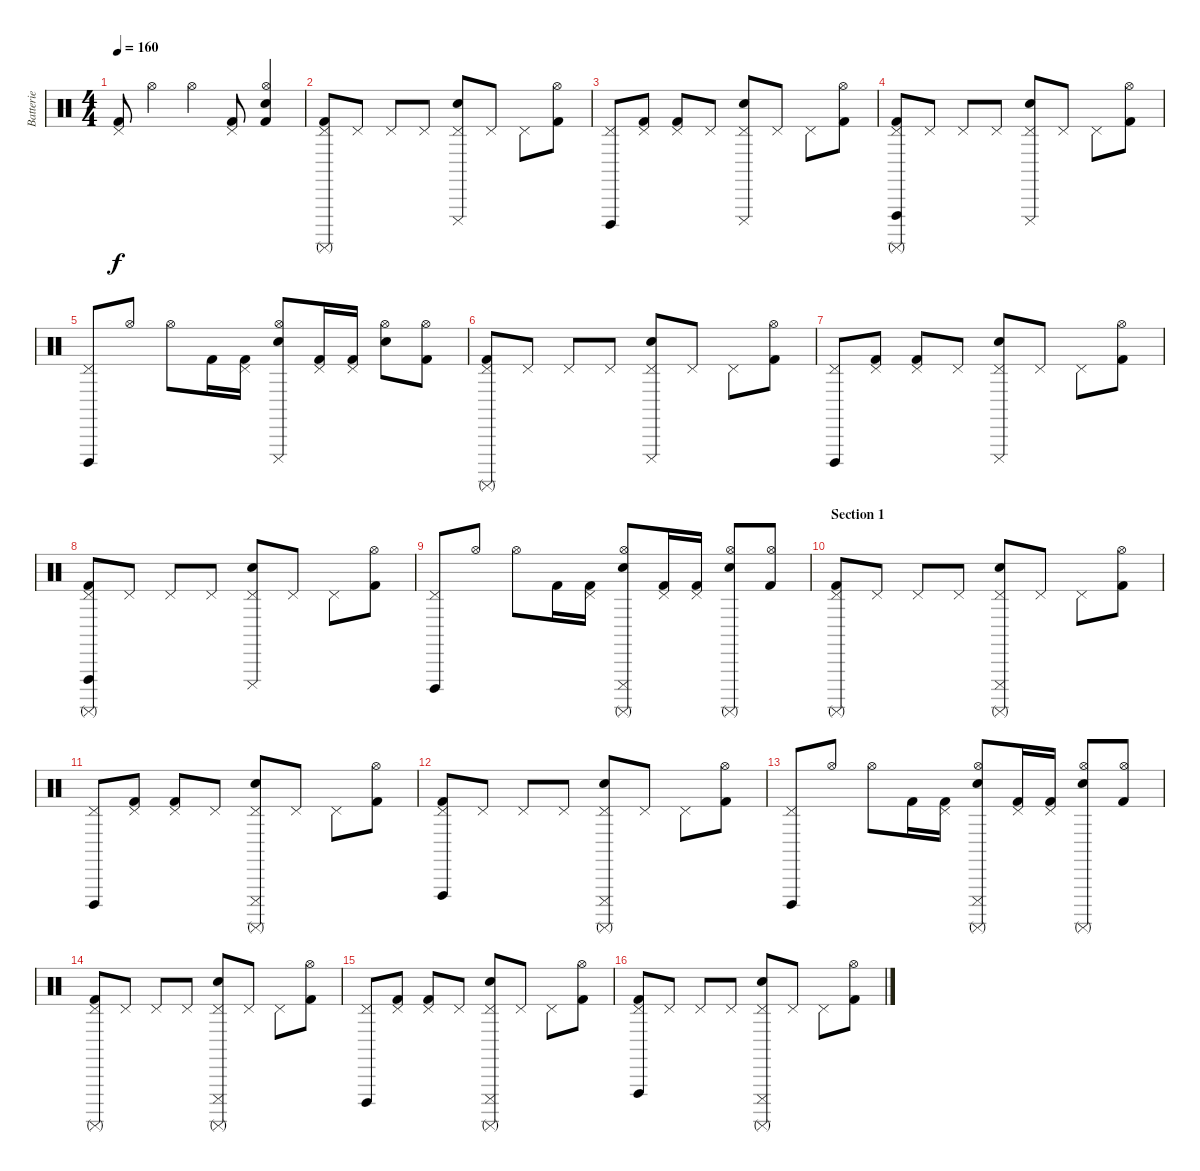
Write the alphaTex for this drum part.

\track ("Batterie" "Batterie") {instrument percussion}
\staff {score}
\articulation defaults
\ts (4 4)
\tempo 160
\clef neutral
\ks c
("Kick (hit) 2" "Pedal Hi-Hat (hit)").8{dy f} "Hi-Hat (open)".4 "Hi-Hat (open)".4 ("Pedal Hi-Hat (hit)" "Kick (hit) 2").8 ("Kick (hit) 2" "Hi-Hat (open)" "Electric Snare (hit)").4 |
("Surdo (mute)" "Pedal Hi-Hat (hit)" "Kick (hit) 2").8 "Pedal Hi-Hat (hit)".8 "Pedal Hi-Hat (hit)".8 "Pedal Hi-Hat (hit)".8 ("Cuica (mute)" "Pedal Hi-Hat (hit)" "Electric Snare (hit)").8 "Pedal Hi-Hat (hit)".8 "Pedal Hi-Hat (hit)".8 ("Hi-Hat (open)" "Kick (hit) 2").8 |
("Cuica (open)" "Pedal Hi-Hat (hit)").8 ("Pedal Hi-Hat (hit)" "Kick (hit) 2").8 ("Pedal Hi-Hat (hit)" "Kick (hit) 2").8 "Pedal Hi-Hat (hit)".8 ("Cuica (mute)" "Pedal Hi-Hat (hit)" "Electric Snare (hit)").8 "Pedal Hi-Hat (hit)".8 "Pedal Hi-Hat (hit)".8 ("Hi-Hat (open)" "Kick (hit) 2").8 |
("Surdo (mute)" "Vibraslap (hit)" "Pedal Hi-Hat (hit)" "Kick (hit) 2").8 "Pedal Hi-Hat (hit)".8 "Pedal Hi-Hat (hit)".8 "Pedal Hi-Hat (hit)".8 ("Cuica (mute)" "Pedal Hi-Hat (hit)" "Electric Snare (hit)").8 "Pedal Hi-Hat (hit)".8 "Pedal Hi-Hat (hit)".8 ("Hi-Hat (open)" "Kick (hit) 2").8 |
("Cuica (open)" "Pedal Hi-Hat (hit)").8 "Hi-Hat (open)".8 "Hi-Hat (open)".8 "Kick (hit) 2".16 ("Pedal Hi-Hat (hit)" "Kick (hit) 2").16 ("Cuica (mute)" "Hi-Hat (open)" "Electric Snare (hit)").8 ("Pedal Hi-Hat (hit)" "Kick (hit) 2").16 ("Pedal Hi-Hat (hit)" "Kick (hit) 2").16 ("Hi-Hat (open)" "Electric Snare (hit)").8 ("Hi-Hat (open)" "Kick (hit) 2").8 |
("Surdo (mute)" "Pedal Hi-Hat (hit)" "Kick (hit) 2").8 "Pedal Hi-Hat (hit)".8 "Pedal Hi-Hat (hit)".8 "Pedal Hi-Hat (hit)".8 ("Cuica (mute)" "Pedal Hi-Hat (hit)" "Electric Snare (hit)").8 "Pedal Hi-Hat (hit)".8 "Pedal Hi-Hat (hit)".8 ("Hi-Hat (open)" "Kick (hit) 2").8 |
("Cuica (open)" "Pedal Hi-Hat (hit)").8 ("Pedal Hi-Hat (hit)" "Kick (hit) 2").8 ("Pedal Hi-Hat (hit)" "Kick (hit) 2").8 "Pedal Hi-Hat (hit)".8 ("Cuica (mute)" "Pedal Hi-Hat (hit)" "Electric Snare (hit)").8 "Pedal Hi-Hat (hit)".8 "Pedal Hi-Hat (hit)".8 ("Hi-Hat (open)" "Kick (hit) 2").8 |
("Surdo (mute)" "Vibraslap (hit)" "Pedal Hi-Hat (hit)" "Kick (hit) 2").8 "Pedal Hi-Hat (hit)".8 "Pedal Hi-Hat (hit)".8 "Pedal Hi-Hat (hit)".8 ("Cuica (mute)" "Pedal Hi-Hat (hit)" "Electric Snare (hit)").8 "Pedal Hi-Hat (hit)".8 "Pedal Hi-Hat (hit)".8 ("Hi-Hat (open)" "Kick (hit) 2").8 |
("Cuica (open)" "Pedal Hi-Hat (hit)").8 "Hi-Hat (open)".8 "Hi-Hat (open)".8 "Kick (hit) 2".16 ("Pedal Hi-Hat (hit)" "Kick (hit) 2").16 ("Surdo (mute)" "Cuica (mute)" "Hi-Hat (open)" "Electric Snare (hit)").8 ("Pedal Hi-Hat (hit)" "Kick (hit) 2").16 ("Pedal Hi-Hat (hit)" "Kick (hit) 2").16 ("Surdo (mute)" "Hi-Hat (open)" "Electric Snare (hit)").8 ("Hi-Hat (open)" "Kick (hit) 2").8 |
\section ("" "Section 1")
("Surdo (mute)" "Pedal Hi-Hat (hit)" "Kick (hit) 2").8 "Pedal Hi-Hat (hit)".8 "Pedal Hi-Hat (hit)".8 "Pedal Hi-Hat (hit)".8 ("Surdo (mute)" "Cuica (mute)" "Pedal Hi-Hat (hit)" "Electric Snare (hit)").8 "Pedal Hi-Hat (hit)".8 "Pedal Hi-Hat (hit)".8 ("Hi-Hat (open)" "Kick (hit) 2").8 |
\section ("" "")
("Cuica (open)" "Pedal Hi-Hat (hit)").8 ("Pedal Hi-Hat (hit)" "Kick (hit) 2").8 ("Pedal Hi-Hat (hit)" "Kick (hit) 2").8 "Pedal Hi-Hat (hit)".8 ("Surdo (mute)" "Cuica (mute)" "Pedal Hi-Hat (hit)" "Electric Snare (hit)").8 "Pedal Hi-Hat (hit)".8 "Pedal Hi-Hat (hit)".8 ("Hi-Hat (open)" "Kick (hit) 2").8 |
("Vibraslap (hit)" "Pedal Hi-Hat (hit)" "Kick (hit) 2").8 "Pedal Hi-Hat (hit)".8 "Pedal Hi-Hat (hit)".8 "Pedal Hi-Hat (hit)".8 ("Surdo (mute)" "Cuica (mute)" "Pedal Hi-Hat (hit)" "Electric Snare (hit)").8 "Pedal Hi-Hat (hit)".8 "Pedal Hi-Hat (hit)".8 ("Hi-Hat (open)" "Kick (hit) 2").8 |
("Cuica (open)" "Pedal Hi-Hat (hit)").8 "Hi-Hat (open)".8 "Hi-Hat (open)".8 "Kick (hit) 2".16 ("Pedal Hi-Hat (hit)" "Kick (hit) 2").16 ("Surdo (mute)" "Cuica (mute)" "Hi-Hat (open)" "Electric Snare (hit)").8 ("Pedal Hi-Hat (hit)" "Kick (hit) 2").16 ("Pedal Hi-Hat (hit)" "Kick (hit) 2").16 ("Surdo (mute)" "Hi-Hat (open)" "Electric Snare (hit)").8 ("Hi-Hat (open)" "Kick (hit) 2").8 |
("Surdo (mute)" "Pedal Hi-Hat (hit)" "Kick (hit) 2").8 "Pedal Hi-Hat (hit)".8 "Pedal Hi-Hat (hit)".8 "Pedal Hi-Hat (hit)".8 ("Surdo (mute)" "Cuica (mute)" "Pedal Hi-Hat (hit)" "Electric Snare (hit)").8 "Pedal Hi-Hat (hit)".8 "Pedal Hi-Hat (hit)".8 ("Hi-Hat (open)" "Kick (hit) 2").8 |
("Cuica (open)" "Pedal Hi-Hat (hit)").8 ("Pedal Hi-Hat (hit)" "Kick (hit) 2").8 ("Pedal Hi-Hat (hit)" "Kick (hit) 2").8 "Pedal Hi-Hat (hit)".8 ("Surdo (mute)" "Cuica (mute)" "Pedal Hi-Hat (hit)" "Electric Snare (hit)").8 "Pedal Hi-Hat (hit)".8 "Pedal Hi-Hat (hit)".8 ("Hi-Hat (open)" "Kick (hit) 2").8 |
("Vibraslap (hit)" "Pedal Hi-Hat (hit)" "Kick (hit) 2").8 "Pedal Hi-Hat (hit)".8 "Pedal Hi-Hat (hit)".8 "Pedal Hi-Hat (hit)".8 ("Surdo (mute)" "Cuica (mute)" "Pedal Hi-Hat (hit)" "Electric Snare (hit)").8 "Pedal Hi-Hat (hit)".8 "Pedal Hi-Hat (hit)".8 ("Hi-Hat (open)" "Kick (hit) 2").8
